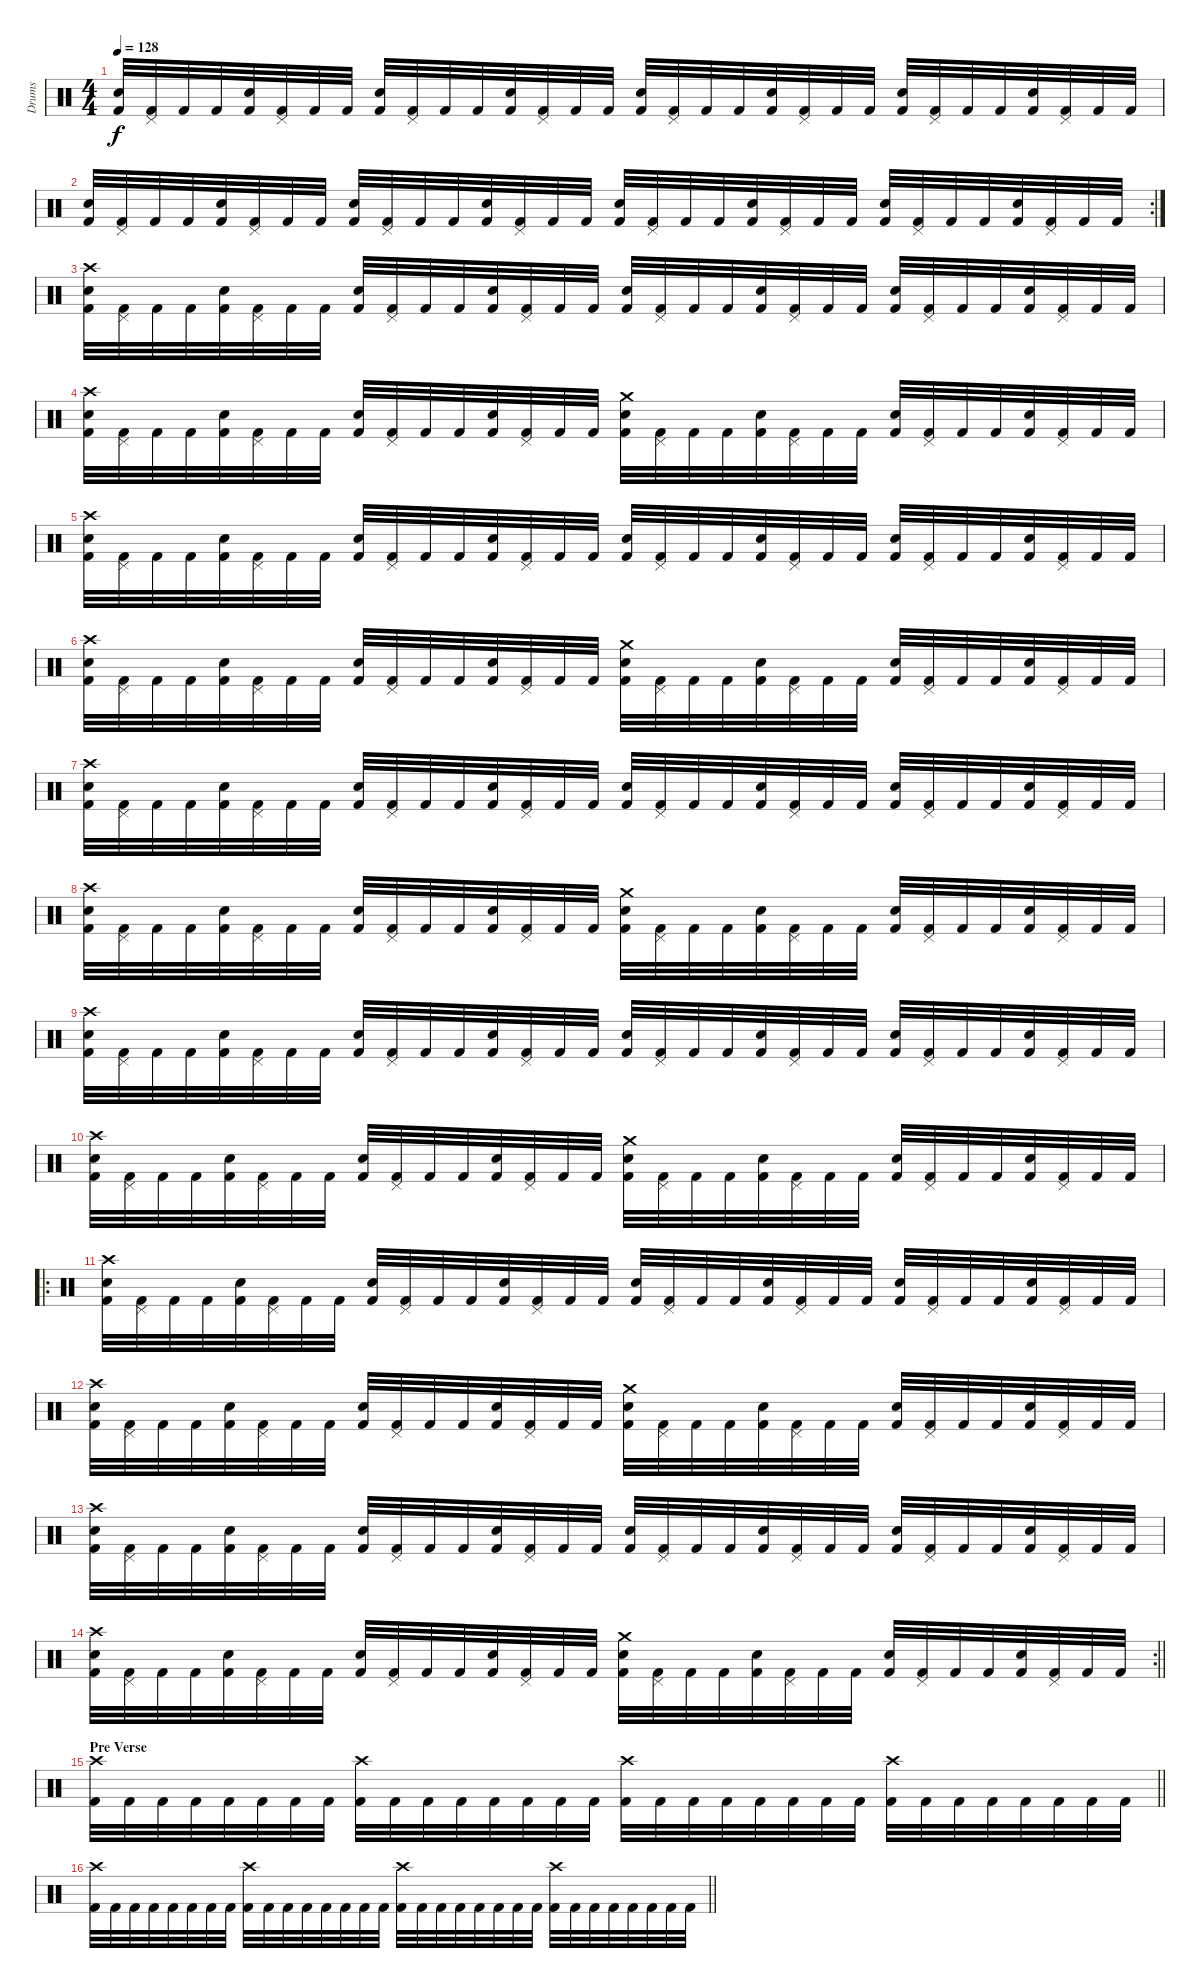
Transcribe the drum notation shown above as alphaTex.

\track ("Drums" "Drums") {instrument percussion}
\staff {score}
\articulation defaults
\ts (4 4)
\tempo 128
\clef neutral
\ks c
("Kick (hit) 2" "Electric Snare (hit)").32{dy f} ("Kick (hit) 2" "Pedal Hi-Hat (hit)").32 "Kick (hit) 2".32 "Kick (hit) 2".32 ("Kick (hit) 2" "Electric Snare (hit)").32 ("Kick (hit) 2" "Pedal Hi-Hat (hit)").32 "Kick (hit) 2".32 "Kick (hit) 2".32 ("Kick (hit) 2" "Electric Snare (hit)").32 ("Kick (hit) 2" "Pedal Hi-Hat (hit)").32 "Kick (hit) 2".32 "Kick (hit) 2".32 ("Kick (hit) 2" "Electric Snare (hit)").32 ("Kick (hit) 2" "Pedal Hi-Hat (hit)").32 "Kick (hit) 2".32 "Kick (hit) 2".32 ("Kick (hit) 2" "Electric Snare (hit)").32 ("Kick (hit) 2" "Pedal Hi-Hat (hit)").32 "Kick (hit) 2".32 "Kick (hit) 2".32 ("Kick (hit) 2" "Electric Snare (hit)").32 ("Kick (hit) 2" "Pedal Hi-Hat (hit)").32 "Kick (hit) 2".32 "Kick (hit) 2".32 ("Kick (hit) 2" "Electric Snare (hit)").32 ("Kick (hit) 2" "Pedal Hi-Hat (hit)").32 "Kick (hit) 2".32 "Kick (hit) 2".32 ("Kick (hit) 2" "Electric Snare (hit)").32 ("Kick (hit) 2" "Pedal Hi-Hat (hit)").32 "Kick (hit) 2".32 "Kick (hit) 2".32 |
\rc 2
("Kick (hit) 2" "Electric Snare (hit)").32 ("Kick (hit) 2" "Pedal Hi-Hat (hit)").32 "Kick (hit) 2".32 "Kick (hit) 2".32 ("Kick (hit) 2" "Electric Snare (hit)").32 ("Kick (hit) 2" "Pedal Hi-Hat (hit)").32 "Kick (hit) 2".32 "Kick (hit) 2".32 ("Kick (hit) 2" "Electric Snare (hit)").32 ("Kick (hit) 2" "Pedal Hi-Hat (hit)").32 "Kick (hit) 2".32 "Kick (hit) 2".32 ("Kick (hit) 2" "Electric Snare (hit)").32 ("Kick (hit) 2" "Pedal Hi-Hat (hit)").32 "Kick (hit) 2".32 "Kick (hit) 2".32 ("Kick (hit) 2" "Electric Snare (hit)").32 ("Kick (hit) 2" "Pedal Hi-Hat (hit)").32 "Kick (hit) 2".32 "Kick (hit) 2".32 ("Kick (hit) 2" "Electric Snare (hit)").32 ("Kick (hit) 2" "Pedal Hi-Hat (hit)").32 "Kick (hit) 2".32 "Kick (hit) 2".32 ("Kick (hit) 2" "Electric Snare (hit)").32 ("Kick (hit) 2" "Pedal Hi-Hat (hit)").32 "Kick (hit) 2".32 "Kick (hit) 2".32 ("Kick (hit) 2" "Electric Snare (hit)").32 ("Kick (hit) 2" "Pedal Hi-Hat (hit)").32 "Kick (hit) 2".32 "Kick (hit) 2".32 |
("Kick (hit) 2" "Electric Snare (hit)" "Crash high (hit)").32 ("Kick (hit) 2" "Pedal Hi-Hat (hit)").32 "Kick (hit) 2".32 "Kick (hit) 2".32 ("Kick (hit) 2" "Electric Snare (hit)").32 ("Kick (hit) 2" "Pedal Hi-Hat (hit)").32 "Kick (hit) 2".32 "Kick (hit) 2".32 ("Kick (hit) 2" "Electric Snare (hit)").32 ("Kick (hit) 2" "Pedal Hi-Hat (hit)").32 "Kick (hit) 2".32 "Kick (hit) 2".32 ("Kick (hit) 2" "Electric Snare (hit)").32 ("Kick (hit) 2" "Pedal Hi-Hat (hit)").32 "Kick (hit) 2".32 "Kick (hit) 2".32 ("Kick (hit) 2" "Electric Snare (hit)").32 ("Kick (hit) 2" "Pedal Hi-Hat (hit)").32 "Kick (hit) 2".32 "Kick (hit) 2".32 ("Kick (hit) 2" "Electric Snare (hit)").32 ("Kick (hit) 2" "Pedal Hi-Hat (hit)").32 "Kick (hit) 2".32 "Kick (hit) 2".32 ("Kick (hit) 2" "Electric Snare (hit)").32 ("Kick (hit) 2" "Pedal Hi-Hat (hit)").32 "Kick (hit) 2".32 "Kick (hit) 2".32 ("Kick (hit) 2" "Electric Snare (hit)").32 ("Kick (hit) 2" "Pedal Hi-Hat (hit)").32 "Kick (hit) 2".32 "Kick (hit) 2".32 |
("Kick (hit) 2" "Electric Snare (hit)" "Crash high (hit)").32 ("Kick (hit) 2" "Pedal Hi-Hat (hit)").32 "Kick (hit) 2".32 "Kick (hit) 2".32 ("Kick (hit) 2" "Electric Snare (hit)").32 ("Kick (hit) 2" "Pedal Hi-Hat (hit)").32 "Kick (hit) 2".32 "Kick (hit) 2".32 ("Kick (hit) 2" "Electric Snare (hit)").32 ("Kick (hit) 2" "Pedal Hi-Hat (hit)").32 "Kick (hit) 2".32 "Kick (hit) 2".32 ("Kick (hit) 2" "Electric Snare (hit)").32 ("Kick (hit) 2" "Pedal Hi-Hat (hit)").32 "Kick (hit) 2".32 "Kick (hit) 2".32 ("Kick (hit) 2" "Electric Snare (hit)" "Crash medium (hit)").32 ("Kick (hit) 2" "Pedal Hi-Hat (hit)").32 "Kick (hit) 2".32 "Kick (hit) 2".32 ("Kick (hit) 2" "Electric Snare (hit)").32 ("Kick (hit) 2" "Pedal Hi-Hat (hit)").32 "Kick (hit) 2".32 "Kick (hit) 2".32 ("Kick (hit) 2" "Electric Snare (hit)").32 ("Kick (hit) 2" "Pedal Hi-Hat (hit)").32 "Kick (hit) 2".32 "Kick (hit) 2".32 ("Kick (hit) 2" "Electric Snare (hit)").32 ("Kick (hit) 2" "Pedal Hi-Hat (hit)").32 "Kick (hit) 2".32 "Kick (hit) 2".32 |
("Kick (hit) 2" "Electric Snare (hit)" "Crash high (hit)").32 ("Kick (hit) 2" "Pedal Hi-Hat (hit)").32 "Kick (hit) 2".32 "Kick (hit) 2".32 ("Kick (hit) 2" "Electric Snare (hit)").32 ("Kick (hit) 2" "Pedal Hi-Hat (hit)").32 "Kick (hit) 2".32 "Kick (hit) 2".32 ("Kick (hit) 2" "Electric Snare (hit)").32 ("Kick (hit) 2" "Pedal Hi-Hat (hit)").32 "Kick (hit) 2".32 "Kick (hit) 2".32 ("Kick (hit) 2" "Electric Snare (hit)").32 ("Kick (hit) 2" "Pedal Hi-Hat (hit)").32 "Kick (hit) 2".32 "Kick (hit) 2".32 ("Kick (hit) 2" "Electric Snare (hit)").32 ("Kick (hit) 2" "Pedal Hi-Hat (hit)").32 "Kick (hit) 2".32 "Kick (hit) 2".32 ("Kick (hit) 2" "Electric Snare (hit)").32 ("Kick (hit) 2" "Pedal Hi-Hat (hit)").32 "Kick (hit) 2".32 "Kick (hit) 2".32 ("Kick (hit) 2" "Electric Snare (hit)").32 ("Kick (hit) 2" "Pedal Hi-Hat (hit)").32 "Kick (hit) 2".32 "Kick (hit) 2".32 ("Kick (hit) 2" "Electric Snare (hit)").32 ("Kick (hit) 2" "Pedal Hi-Hat (hit)").32 "Kick (hit) 2".32 "Kick (hit) 2".32 |
("Kick (hit) 2" "Electric Snare (hit)" "Crash high (hit)").32 ("Kick (hit) 2" "Pedal Hi-Hat (hit)").32 "Kick (hit) 2".32 "Kick (hit) 2".32 ("Kick (hit) 2" "Electric Snare (hit)").32 ("Kick (hit) 2" "Pedal Hi-Hat (hit)").32 "Kick (hit) 2".32 "Kick (hit) 2".32 ("Kick (hit) 2" "Electric Snare (hit)").32 ("Kick (hit) 2" "Pedal Hi-Hat (hit)").32 "Kick (hit) 2".32 "Kick (hit) 2".32 ("Kick (hit) 2" "Electric Snare (hit)").32 ("Kick (hit) 2" "Pedal Hi-Hat (hit)").32 "Kick (hit) 2".32 "Kick (hit) 2".32 ("Kick (hit) 2" "Electric Snare (hit)" "Crash medium (hit)").32 ("Kick (hit) 2" "Pedal Hi-Hat (hit)").32 "Kick (hit) 2".32 "Kick (hit) 2".32 ("Kick (hit) 2" "Electric Snare (hit)").32 ("Kick (hit) 2" "Pedal Hi-Hat (hit)").32 "Kick (hit) 2".32 "Kick (hit) 2".32 ("Kick (hit) 2" "Electric Snare (hit)").32 ("Kick (hit) 2" "Pedal Hi-Hat (hit)").32 "Kick (hit) 2".32 "Kick (hit) 2".32 ("Kick (hit) 2" "Electric Snare (hit)").32 ("Kick (hit) 2" "Pedal Hi-Hat (hit)").32 "Kick (hit) 2".32 "Kick (hit) 2".32 |
("Kick (hit) 2" "Electric Snare (hit)" "Crash high (hit)").32 ("Kick (hit) 2" "Pedal Hi-Hat (hit)").32 "Kick (hit) 2".32 "Kick (hit) 2".32 ("Kick (hit) 2" "Electric Snare (hit)").32 ("Kick (hit) 2" "Pedal Hi-Hat (hit)").32 "Kick (hit) 2".32 "Kick (hit) 2".32 ("Kick (hit) 2" "Electric Snare (hit)").32 ("Kick (hit) 2" "Pedal Hi-Hat (hit)").32 "Kick (hit) 2".32 "Kick (hit) 2".32 ("Kick (hit) 2" "Electric Snare (hit)").32 ("Kick (hit) 2" "Pedal Hi-Hat (hit)").32 "Kick (hit) 2".32 "Kick (hit) 2".32 ("Kick (hit) 2" "Electric Snare (hit)").32 ("Kick (hit) 2" "Pedal Hi-Hat (hit)").32 "Kick (hit) 2".32 "Kick (hit) 2".32 ("Kick (hit) 2" "Electric Snare (hit)").32 ("Kick (hit) 2" "Pedal Hi-Hat (hit)").32 "Kick (hit) 2".32 "Kick (hit) 2".32 ("Kick (hit) 2" "Electric Snare (hit)").32 ("Kick (hit) 2" "Pedal Hi-Hat (hit)").32 "Kick (hit) 2".32 "Kick (hit) 2".32 ("Kick (hit) 2" "Electric Snare (hit)").32 ("Kick (hit) 2" "Pedal Hi-Hat (hit)").32 "Kick (hit) 2".32 "Kick (hit) 2".32 |
("Kick (hit) 2" "Electric Snare (hit)" "Crash high (hit)").32 ("Kick (hit) 2" "Pedal Hi-Hat (hit)").32 "Kick (hit) 2".32 "Kick (hit) 2".32 ("Kick (hit) 2" "Electric Snare (hit)").32 ("Kick (hit) 2" "Pedal Hi-Hat (hit)").32 "Kick (hit) 2".32 "Kick (hit) 2".32 ("Kick (hit) 2" "Electric Snare (hit)").32 ("Kick (hit) 2" "Pedal Hi-Hat (hit)").32 "Kick (hit) 2".32 "Kick (hit) 2".32 ("Kick (hit) 2" "Electric Snare (hit)").32 ("Kick (hit) 2" "Pedal Hi-Hat (hit)").32 "Kick (hit) 2".32 "Kick (hit) 2".32 ("Kick (hit) 2" "Electric Snare (hit)" "Crash medium (hit)").32 ("Kick (hit) 2" "Pedal Hi-Hat (hit)").32 "Kick (hit) 2".32 "Kick (hit) 2".32 ("Kick (hit) 2" "Electric Snare (hit)").32 ("Kick (hit) 2" "Pedal Hi-Hat (hit)").32 "Kick (hit) 2".32 "Kick (hit) 2".32 ("Kick (hit) 2" "Electric Snare (hit)").32 ("Kick (hit) 2" "Pedal Hi-Hat (hit)").32 "Kick (hit) 2".32 "Kick (hit) 2".32 ("Kick (hit) 2" "Electric Snare (hit)").32 ("Kick (hit) 2" "Pedal Hi-Hat (hit)").32 "Kick (hit) 2".32 "Kick (hit) 2".32 |
("Kick (hit) 2" "Electric Snare (hit)" "Crash high (hit)").32 ("Kick (hit) 2" "Pedal Hi-Hat (hit)").32 "Kick (hit) 2".32 "Kick (hit) 2".32 ("Kick (hit) 2" "Electric Snare (hit)").32 ("Kick (hit) 2" "Pedal Hi-Hat (hit)").32 "Kick (hit) 2".32 "Kick (hit) 2".32 ("Kick (hit) 2" "Electric Snare (hit)").32 ("Kick (hit) 2" "Pedal Hi-Hat (hit)").32 "Kick (hit) 2".32 "Kick (hit) 2".32 ("Kick (hit) 2" "Electric Snare (hit)").32 ("Kick (hit) 2" "Pedal Hi-Hat (hit)").32 "Kick (hit) 2".32 "Kick (hit) 2".32 ("Kick (hit) 2" "Electric Snare (hit)").32 ("Kick (hit) 2" "Pedal Hi-Hat (hit)").32 "Kick (hit) 2".32 "Kick (hit) 2".32 ("Kick (hit) 2" "Electric Snare (hit)").32 ("Kick (hit) 2" "Pedal Hi-Hat (hit)").32 "Kick (hit) 2".32 "Kick (hit) 2".32 ("Kick (hit) 2" "Electric Snare (hit)").32 ("Kick (hit) 2" "Pedal Hi-Hat (hit)").32 "Kick (hit) 2".32 "Kick (hit) 2".32 ("Kick (hit) 2" "Electric Snare (hit)").32 ("Kick (hit) 2" "Pedal Hi-Hat (hit)").32 "Kick (hit) 2".32 "Kick (hit) 2".32 |
("Kick (hit) 2" "Electric Snare (hit)" "Crash high (hit)").32 ("Kick (hit) 2" "Pedal Hi-Hat (hit)").32 "Kick (hit) 2".32 "Kick (hit) 2".32 ("Kick (hit) 2" "Electric Snare (hit)").32 ("Kick (hit) 2" "Pedal Hi-Hat (hit)").32 "Kick (hit) 2".32 "Kick (hit) 2".32 ("Kick (hit) 2" "Electric Snare (hit)").32 ("Kick (hit) 2" "Pedal Hi-Hat (hit)").32 "Kick (hit) 2".32 "Kick (hit) 2".32 ("Kick (hit) 2" "Electric Snare (hit)").32 ("Kick (hit) 2" "Pedal Hi-Hat (hit)").32 "Kick (hit) 2".32 "Kick (hit) 2".32 ("Kick (hit) 2" "Electric Snare (hit)" "Crash medium (hit)").32 ("Kick (hit) 2" "Pedal Hi-Hat (hit)").32 "Kick (hit) 2".32 "Kick (hit) 2".32 ("Kick (hit) 2" "Electric Snare (hit)").32 ("Kick (hit) 2" "Pedal Hi-Hat (hit)").32 "Kick (hit) 2".32 "Kick (hit) 2".32 ("Kick (hit) 2" "Electric Snare (hit)").32 ("Kick (hit) 2" "Pedal Hi-Hat (hit)").32 "Kick (hit) 2".32 "Kick (hit) 2".32 ("Kick (hit) 2" "Electric Snare (hit)").32 ("Kick (hit) 2" "Pedal Hi-Hat (hit)").32 "Kick (hit) 2".32 "Kick (hit) 2".32 |
\ro
("Kick (hit) 2" "Electric Snare (hit)" "Crash high (hit)").32 ("Kick (hit) 2" "Pedal Hi-Hat (hit)").32 "Kick (hit) 2".32 "Kick (hit) 2".32 ("Kick (hit) 2" "Electric Snare (hit)").32 ("Kick (hit) 2" "Pedal Hi-Hat (hit)").32 "Kick (hit) 2".32 "Kick (hit) 2".32 ("Kick (hit) 2" "Electric Snare (hit)").32 ("Kick (hit) 2" "Pedal Hi-Hat (hit)").32 "Kick (hit) 2".32 "Kick (hit) 2".32 ("Kick (hit) 2" "Electric Snare (hit)").32 ("Kick (hit) 2" "Pedal Hi-Hat (hit)").32 "Kick (hit) 2".32 "Kick (hit) 2".32 ("Kick (hit) 2" "Electric Snare (hit)").32 ("Kick (hit) 2" "Pedal Hi-Hat (hit)").32 "Kick (hit) 2".32 "Kick (hit) 2".32 ("Kick (hit) 2" "Electric Snare (hit)").32 ("Kick (hit) 2" "Pedal Hi-Hat (hit)").32 "Kick (hit) 2".32 "Kick (hit) 2".32 ("Kick (hit) 2" "Electric Snare (hit)").32 ("Kick (hit) 2" "Pedal Hi-Hat (hit)").32 "Kick (hit) 2".32 "Kick (hit) 2".32 ("Kick (hit) 2" "Electric Snare (hit)").32 ("Kick (hit) 2" "Pedal Hi-Hat (hit)").32 "Kick (hit) 2".32 "Kick (hit) 2".32 |
("Kick (hit) 2" "Electric Snare (hit)" "Crash high (hit)").32 ("Kick (hit) 2" "Pedal Hi-Hat (hit)").32 "Kick (hit) 2".32 "Kick (hit) 2".32 ("Kick (hit) 2" "Electric Snare (hit)").32 ("Kick (hit) 2" "Pedal Hi-Hat (hit)").32 "Kick (hit) 2".32 "Kick (hit) 2".32 ("Kick (hit) 2" "Electric Snare (hit)").32 ("Kick (hit) 2" "Pedal Hi-Hat (hit)").32 "Kick (hit) 2".32 "Kick (hit) 2".32 ("Kick (hit) 2" "Electric Snare (hit)").32 ("Kick (hit) 2" "Pedal Hi-Hat (hit)").32 "Kick (hit) 2".32 "Kick (hit) 2".32 ("Kick (hit) 2" "Electric Snare (hit)" "Crash medium (hit)").32 ("Kick (hit) 2" "Pedal Hi-Hat (hit)").32 "Kick (hit) 2".32 "Kick (hit) 2".32 ("Kick (hit) 2" "Electric Snare (hit)").32 ("Kick (hit) 2" "Pedal Hi-Hat (hit)").32 "Kick (hit) 2".32 "Kick (hit) 2".32 ("Kick (hit) 2" "Electric Snare (hit)").32 ("Kick (hit) 2" "Pedal Hi-Hat (hit)").32 "Kick (hit) 2".32 "Kick (hit) 2".32 ("Kick (hit) 2" "Electric Snare (hit)").32 ("Kick (hit) 2" "Pedal Hi-Hat (hit)").32 "Kick (hit) 2".32 "Kick (hit) 2".32 |
("Kick (hit) 2" "Electric Snare (hit)" "Crash high (hit)").32 ("Kick (hit) 2" "Pedal Hi-Hat (hit)").32 "Kick (hit) 2".32 "Kick (hit) 2".32 ("Kick (hit) 2" "Electric Snare (hit)").32 ("Kick (hit) 2" "Pedal Hi-Hat (hit)").32 "Kick (hit) 2".32 "Kick (hit) 2".32 ("Kick (hit) 2" "Electric Snare (hit)").32 ("Kick (hit) 2" "Pedal Hi-Hat (hit)").32 "Kick (hit) 2".32 "Kick (hit) 2".32 ("Kick (hit) 2" "Electric Snare (hit)").32 ("Kick (hit) 2" "Pedal Hi-Hat (hit)").32 "Kick (hit) 2".32 "Kick (hit) 2".32 ("Kick (hit) 2" "Electric Snare (hit)").32 ("Kick (hit) 2" "Pedal Hi-Hat (hit)").32 "Kick (hit) 2".32 "Kick (hit) 2".32 ("Kick (hit) 2" "Electric Snare (hit)").32 ("Kick (hit) 2" "Pedal Hi-Hat (hit)").32 "Kick (hit) 2".32 "Kick (hit) 2".32 ("Kick (hit) 2" "Electric Snare (hit)").32 ("Kick (hit) 2" "Pedal Hi-Hat (hit)").32 "Kick (hit) 2".32 "Kick (hit) 2".32 ("Kick (hit) 2" "Electric Snare (hit)").32 ("Kick (hit) 2" "Pedal Hi-Hat (hit)").32 "Kick (hit) 2".32 "Kick (hit) 2".32 |
\rc 2
\barLineRight lightlight
("Kick (hit) 2" "Electric Snare (hit)" "Crash high (hit)").32 ("Kick (hit) 2" "Pedal Hi-Hat (hit)").32 "Kick (hit) 2".32 "Kick (hit) 2".32 ("Kick (hit) 2" "Electric Snare (hit)").32 ("Kick (hit) 2" "Pedal Hi-Hat (hit)").32 "Kick (hit) 2".32 "Kick (hit) 2".32 ("Kick (hit) 2" "Electric Snare (hit)").32 ("Kick (hit) 2" "Pedal Hi-Hat (hit)").32 "Kick (hit) 2".32 "Kick (hit) 2".32 ("Kick (hit) 2" "Electric Snare (hit)").32 ("Kick (hit) 2" "Pedal Hi-Hat (hit)").32 "Kick (hit) 2".32 "Kick (hit) 2".32 ("Kick (hit) 2" "Electric Snare (hit)" "Crash medium (hit)").32 ("Kick (hit) 2" "Pedal Hi-Hat (hit)").32 "Kick (hit) 2".32 "Kick (hit) 2".32 ("Kick (hit) 2" "Electric Snare (hit)").32 ("Kick (hit) 2" "Pedal Hi-Hat (hit)").32 "Kick (hit) 2".32 "Kick (hit) 2".32 ("Kick (hit) 2" "Electric Snare (hit)").32 ("Kick (hit) 2" "Pedal Hi-Hat (hit)").32 "Kick (hit) 2".32 "Kick (hit) 2".32 ("Kick (hit) 2" "Electric Snare (hit)").32 ("Kick (hit) 2" "Pedal Hi-Hat (hit)").32 "Kick (hit) 2".32 "Kick (hit) 2".32 |
\section ("" "Pre Verse")
\barLineRight lightlight
("Kick (hit) 2" "Crash high (hit)").32 "Kick (hit) 2".32 "Kick (hit) 2".32 "Kick (hit) 2".32 "Kick (hit) 2".32 "Kick (hit) 2".32 "Kick (hit) 2".32 "Kick (hit) 2".32 ("Kick (hit) 2" "Crash high (hit)").32 "Kick (hit) 2".32 "Kick (hit) 2".32 "Kick (hit) 2".32 "Kick (hit) 2".32 "Kick (hit) 2".32 "Kick (hit) 2".32 "Kick (hit) 2".32 ("Kick (hit) 2" "Crash high (hit)").32 "Kick (hit) 2".32 "Kick (hit) 2".32 "Kick (hit) 2".32 "Kick (hit) 2".32 "Kick (hit) 2".32 "Kick (hit) 2".32 "Kick (hit) 2".32 ("Kick (hit) 2" "Crash high (hit)").32 "Kick (hit) 2".32 "Kick (hit) 2".32 "Kick (hit) 2".32 "Kick (hit) 2".32 "Kick (hit) 2".32 "Kick (hit) 2".32 "Kick (hit) 2".32 |
\barLineRight lightlight
("Kick (hit) 2" "Crash high (hit)").32 "Kick (hit) 2".32 "Kick (hit) 2".32 "Kick (hit) 2".32 "Kick (hit) 2".32 "Kick (hit) 2".32 "Kick (hit) 2".32 "Kick (hit) 2".32 ("Kick (hit) 2" "Crash high (hit)").32 "Kick (hit) 2".32 "Kick (hit) 2".32 "Kick (hit) 2".32 "Kick (hit) 2".32 "Kick (hit) 2".32 "Kick (hit) 2".32 "Kick (hit) 2".32 ("Kick (hit) 2" "Crash high (hit)").32 "Kick (hit) 2".32 "Kick (hit) 2".32 "Kick (hit) 2".32 "Kick (hit) 2".32 "Kick (hit) 2".32 "Kick (hit) 2".32 "Kick (hit) 2".32 ("Kick (hit) 2" "Crash high (hit)").32 "Kick (hit) 2".32 "Kick (hit) 2".32 "Kick (hit) 2".32 "Kick (hit) 2".32 "Kick (hit) 2".32 "Kick (hit) 2".32 "Kick (hit) 2".32
